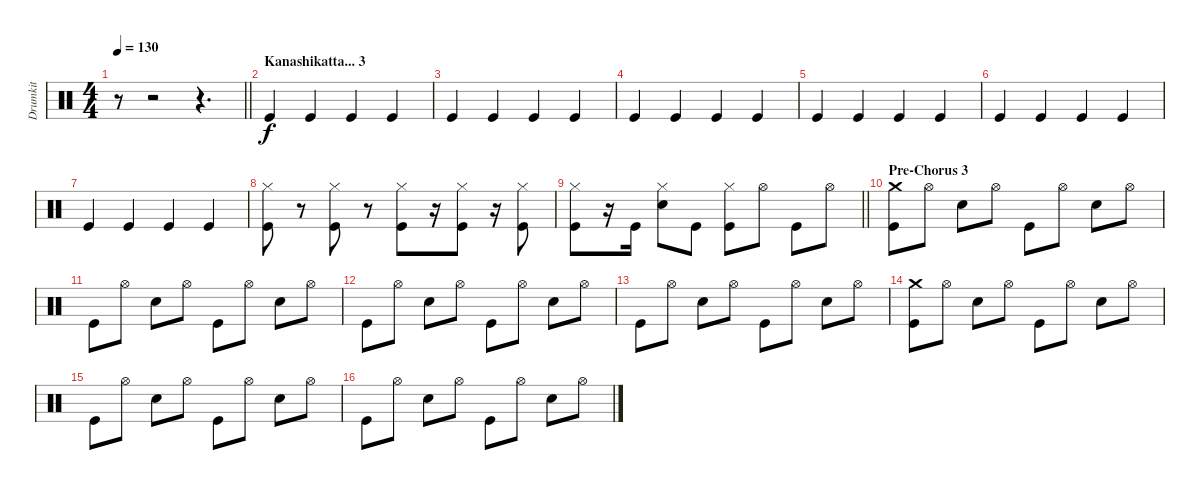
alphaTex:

\track ("Drumkit" "Drumkit") {instrument percussion}
\staff {score}
\articulation defaults
\ts (4 4)
\tempo 130
\clef neutral
\barLineRight lightlight
\ks c
r.8{dy f} r.2 r.4{d} |
\section ("" "Kanashikatta... 3")
"Kick (hit)".4 "Kick (hit)".4 "Kick (hit)".4 "Kick (hit)".4 |
"Kick (hit)".4 "Kick (hit)".4 "Kick (hit)".4 "Kick (hit)".4 |
"Kick (hit)".4 "Kick (hit)".4 "Kick (hit)".4 "Kick (hit)".4 |
"Kick (hit)".4 "Kick (hit)".4 "Kick (hit)".4 "Kick (hit)".4 |
"Kick (hit)".4 "Kick (hit)".4 "Kick (hit)".4 "Kick (hit)".4 |
"Kick (hit)".4 "Kick (hit)".4 "Kick (hit)".4 "Kick (hit)".4 |
("Kick (hit)" "Hi-Hat (closed)").8 r.8 ("Kick (hit)" "Hi-Hat (closed)").8 r.8 ("Kick (hit)" "Hi-Hat (closed)").8 r.16 ("Kick (hit)" "Hi-Hat (closed)").8 r.16 ("Kick (hit)" "Hi-Hat (closed)").8 |
\barLineRight lightlight
("Kick (hit)" "Hi-Hat (closed)").8 r.16 "Kick (hit)".16 ("Snare (hit) 2" "Hi-Hat (closed)").8 "Kick (hit)".8 ("Kick (hit)" "Hi-Hat (closed)").8 "Hi-Hat (open)".8 "Kick (hit)".8 "Hi-Hat (open)".8 |
\section ("" "Pre-Chorus 3")
("Kick (hit)" "Crash medium (hit)").8 "Hi-Hat (open)".8 "Snare (hit) 2".8 "Hi-Hat (open)".8 "Kick (hit)".8 "Hi-Hat (open)".8 "Snare (hit) 2".8 "Hi-Hat (open)".8 |
"Kick (hit)".8 "Hi-Hat (open)".8 "Snare (hit) 2".8 "Hi-Hat (open)".8 "Kick (hit)".8 "Hi-Hat (open)".8 "Snare (hit) 2".8 "Hi-Hat (open)".8 |
"Kick (hit)".8 "Hi-Hat (open)".8 "Snare (hit) 2".8 "Hi-Hat (open)".8 "Kick (hit)".8 "Hi-Hat (open)".8 "Snare (hit) 2".8 "Hi-Hat (open)".8 |
"Kick (hit)".8 "Hi-Hat (open)".8 "Snare (hit) 2".8 "Hi-Hat (open)".8 "Kick (hit)".8 "Hi-Hat (open)".8 "Snare (hit) 2".8 "Hi-Hat (open)".8 |
("Kick (hit)" "Crash medium (hit)").8 "Hi-Hat (open)".8 "Snare (hit) 2".8 "Hi-Hat (open)".8 "Kick (hit)".8 "Hi-Hat (open)".8 "Snare (hit) 2".8 "Hi-Hat (open)".8 |
"Kick (hit)".8 "Hi-Hat (open)".8 "Snare (hit) 2".8 "Hi-Hat (open)".8 "Kick (hit)".8 "Hi-Hat (open)".8 "Snare (hit) 2".8 "Hi-Hat (open)".8 |
"Kick (hit)".8 "Hi-Hat (open)".8 "Snare (hit) 2".8 "Hi-Hat (open)".8 "Kick (hit)".8 "Hi-Hat (open)".8 "Snare (hit) 2".8 "Hi-Hat (open)".8
